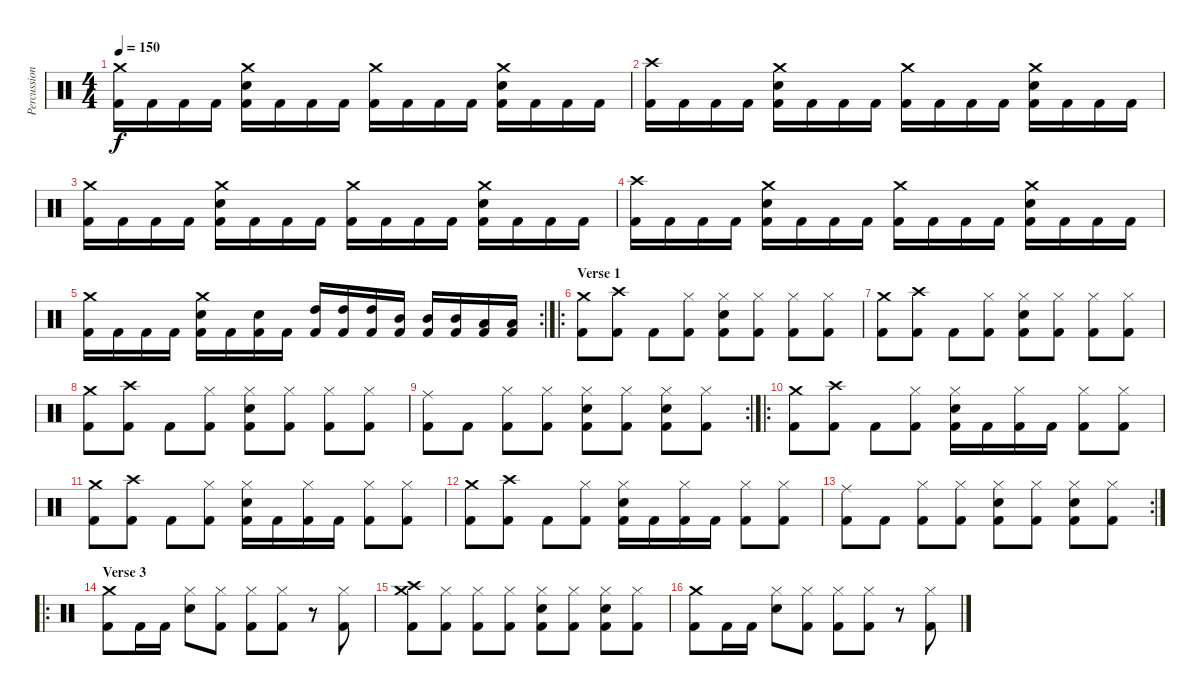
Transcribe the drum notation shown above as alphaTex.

\track ("Percussions" "Percussion") {instrument percussion}
\staff {score}
\articulation defaults
\ts (4 4)
\tempo 150
\clef neutral
\ks c
("Crash medium (hit)" "Kick (hit) 2").16{dy f} "Kick (hit) 2".16 "Kick (hit) 2".16 "Kick (hit) 2".16 ("Crash medium (hit)" "Snare (hit) 2" "Kick (hit) 2").16 "Kick (hit) 2".16 "Kick (hit) 2".16 "Kick (hit) 2".16 ("Crash medium (hit)" "Kick (hit) 2").16 "Kick (hit) 2".16 "Kick (hit) 2".16 "Kick (hit) 2".16 ("Crash medium (hit)" "Snare (hit) 2" "Kick (hit) 2").16 "Kick (hit) 2".16 "Kick (hit) 2".16 "Kick (hit) 2".16 |
("Crash high (hit)" "Kick (hit) 2").16 "Kick (hit) 2".16 "Kick (hit) 2".16 "Kick (hit) 2".16 ("Crash medium (hit)" "Snare (hit) 2" "Kick (hit) 2").16 "Kick (hit) 2".16 "Kick (hit) 2".16 "Kick (hit) 2".16 ("Crash medium (hit)" "Kick (hit) 2").16 "Kick (hit) 2".16 "Kick (hit) 2".16 "Kick (hit) 2".16 ("Crash medium (hit)" "Snare (hit) 2" "Kick (hit) 2").16 "Kick (hit) 2".16 "Kick (hit) 2".16 "Kick (hit) 2".16 |
("Crash medium (hit)" "Kick (hit) 2").16 "Kick (hit) 2".16 "Kick (hit) 2".16 "Kick (hit) 2".16 ("Crash medium (hit)" "Snare (hit) 2" "Kick (hit) 2").16 "Kick (hit) 2".16 "Kick (hit) 2".16 "Kick (hit) 2".16 ("Crash medium (hit)" "Kick (hit) 2").16 "Kick (hit) 2".16 "Kick (hit) 2".16 "Kick (hit) 2".16 ("Crash medium (hit)" "Snare (hit) 2" "Kick (hit) 2").16 "Kick (hit) 2".16 "Kick (hit) 2".16 "Kick (hit) 2".16 |
("Crash high (hit)" "Kick (hit) 2").16 "Kick (hit) 2".16 "Kick (hit) 2".16 "Kick (hit) 2".16 ("Crash medium (hit)" "Snare (hit) 2" "Kick (hit) 2").16 "Kick (hit) 2".16 "Kick (hit) 2".16 "Kick (hit) 2".16 ("Crash medium (hit)" "Kick (hit) 2").16 "Kick (hit) 2".16 "Kick (hit) 2".16 "Kick (hit) 2".16 ("Crash medium (hit)" "Snare (hit) 2" "Kick (hit) 2").16 "Kick (hit) 2".16 "Kick (hit) 2".16 "Kick (hit) 2".16 |
\rc 2
("Crash medium (hit)" "Kick (hit) 2").16 "Kick (hit) 2".16 "Kick (hit) 2".16 "Kick (hit) 2".16 ("Crash medium (hit)" "Snare (hit) 2" "Kick (hit) 2").16 "Kick (hit) 2".16 ("Snare (hit) 2" "Kick (hit) 2").16 "Kick (hit) 2".16 ("High Tom (hit)" "Kick (hit) 2").16 ("High Tom (hit)" "Kick (hit) 2").16 ("High Tom (hit)" "Kick (hit) 2").16 ("Mid Tom (hit)" "Kick (hit) 2").16 ("Mid Tom (hit)" "Kick (hit) 2").16 ("Mid Tom (hit)" "Kick (hit) 2").16 ("Low Tom (hit)" "Kick (hit) 2").16 ("Low Tom (hit)" "Kick (hit) 2").16 |
\ro
\section ("" "Verse 1")
("Crash medium (hit)" "Kick (hit) 2").8 ("Crash high (hit)" "Kick (hit) 2").8 "Kick (hit) 2".8 ("Hi-Hat (closed)" "Kick (hit) 2").8 ("Hi-Hat (closed)" "Snare (hit) 2" "Kick (hit) 2").8 ("Hi-Hat (closed)" "Kick (hit) 2").8 ("Hi-Hat (closed)" "Kick (hit) 2").8 ("Hi-Hat (closed)" "Kick (hit) 2").8 |
("Crash medium (hit)" "Kick (hit) 2").8 ("Crash high (hit)" "Kick (hit) 2").8 "Kick (hit) 2".8 ("Hi-Hat (closed)" "Kick (hit) 2").8 ("Hi-Hat (closed)" "Snare (hit) 2" "Kick (hit) 2").8 ("Hi-Hat (closed)" "Kick (hit) 2").8 ("Hi-Hat (closed)" "Kick (hit) 2").8 ("Hi-Hat (closed)" "Kick (hit) 2").8 |
("Crash medium (hit)" "Kick (hit) 2").8 ("Crash high (hit)" "Kick (hit) 2").8 "Kick (hit) 2".8 ("Hi-Hat (closed)" "Kick (hit) 2").8 ("Hi-Hat (closed)" "Snare (hit) 2" "Kick (hit) 2").8 ("Hi-Hat (closed)" "Kick (hit) 2").8 ("Hi-Hat (closed)" "Kick (hit) 2").8 ("Hi-Hat (closed)" "Kick (hit) 2").8 |
\rc 2
("Ride (middle)" "Kick (hit) 2").8 "Kick (hit) 2".8 ("Hi-Hat (closed)" "Kick (hit) 2").8 ("Hi-Hat (closed)" "Kick (hit) 2").8 ("Hi-Hat (closed)" "Snare (hit) 2" "Kick (hit) 2").8 ("Hi-Hat (closed)" "Kick (hit) 2").8 ("Hi-Hat (closed)" "Snare (hit) 2" "Kick (hit) 2").8 ("Hi-Hat (closed)" "Kick (hit) 2").8 |
\ro
("Crash medium (hit)" "Kick (hit) 2").8 ("Crash high (hit)" "Kick (hit) 2").8 "Kick (hit) 2".8 ("Hi-Hat (closed)" "Kick (hit) 2").8 ("Hi-Hat (closed)" "Snare (hit) 2" "Kick (hit) 2").16 "Kick (hit) 2".16 ("Hi-Hat (closed)" "Kick (hit) 2").16 "Kick (hit) 2".16 ("Hi-Hat (closed)" "Kick (hit) 2").8 ("Hi-Hat (closed)" "Kick (hit) 2").8 |
("Crash medium (hit)" "Kick (hit) 2").8 ("Crash high (hit)" "Kick (hit) 2").8 "Kick (hit) 2".8 ("Hi-Hat (closed)" "Kick (hit) 2").8 ("Hi-Hat (closed)" "Snare (hit) 2" "Kick (hit) 2").16 "Kick (hit) 2".16 ("Hi-Hat (closed)" "Kick (hit) 2").16 "Kick (hit) 2".16 ("Hi-Hat (closed)" "Kick (hit) 2").8 ("Hi-Hat (closed)" "Kick (hit) 2").8 |
("Crash medium (hit)" "Kick (hit) 2").8 ("Crash high (hit)" "Kick (hit) 2").8 "Kick (hit) 2".8 ("Hi-Hat (closed)" "Kick (hit) 2").8 ("Hi-Hat (closed)" "Snare (hit) 2" "Kick (hit) 2").16 "Kick (hit) 2".16 ("Hi-Hat (closed)" "Kick (hit) 2").16 "Kick (hit) 2".16 ("Hi-Hat (closed)" "Kick (hit) 2").8 ("Hi-Hat (closed)" "Kick (hit) 2").8 |
\rc 2
("Ride (middle)" "Kick (hit) 2").8 "Kick (hit) 2".8 ("Hi-Hat (closed)" "Kick (hit) 2").8 ("Hi-Hat (closed)" "Kick (hit) 2").8 ("Hi-Hat (closed)" "Snare (hit) 2" "Kick (hit) 2").8 ("Hi-Hat (closed)" "Kick (hit) 2").8 ("Hi-Hat (closed)" "Snare (hit) 2" "Kick (hit) 2").8 ("Hi-Hat (closed)" "Kick (hit) 2").8 |
\ro
\section ("" "Verse 3")
("Crash medium (hit)" "Kick (hit) 2").8 "Kick (hit) 2".16 "Kick (hit) 2".16 ("Hi-Hat (closed)" "Snare (hit) 2").8 ("Hi-Hat (closed)" "Kick (hit) 2").8 ("Hi-Hat (closed)" "Kick (hit) 2").8 ("Hi-Hat (closed)" "Kick (hit) 2").8 r.8 ("Hi-Hat (closed)" "Kick (hit) 2").8 |
("Crash high (hit)" "Crash medium (hit)" "Kick (hit) 2").8 ("Hi-Hat (closed)" "Kick (hit) 2").8 ("Hi-Hat (closed)" "Kick (hit) 2").8 ("Hi-Hat (closed)" "Kick (hit) 2").8 ("Hi-Hat (closed)" "Snare (hit) 2" "Kick (hit) 2").8 ("Hi-Hat (closed)" "Kick (hit) 2").8 ("Hi-Hat (closed)" "Snare (hit) 2" "Kick (hit) 2").8 ("Hi-Hat (closed)" "Kick (hit) 2").8 |
("Crash medium (hit)" "Kick (hit) 2").8 "Kick (hit) 2".16 "Kick (hit) 2".16 ("Hi-Hat (closed)" "Snare (hit) 2").8 ("Hi-Hat (closed)" "Kick (hit) 2").8 ("Hi-Hat (closed)" "Kick (hit) 2").8 ("Hi-Hat (closed)" "Kick (hit) 2").8 r.8 ("Hi-Hat (closed)" "Kick (hit) 2").8
